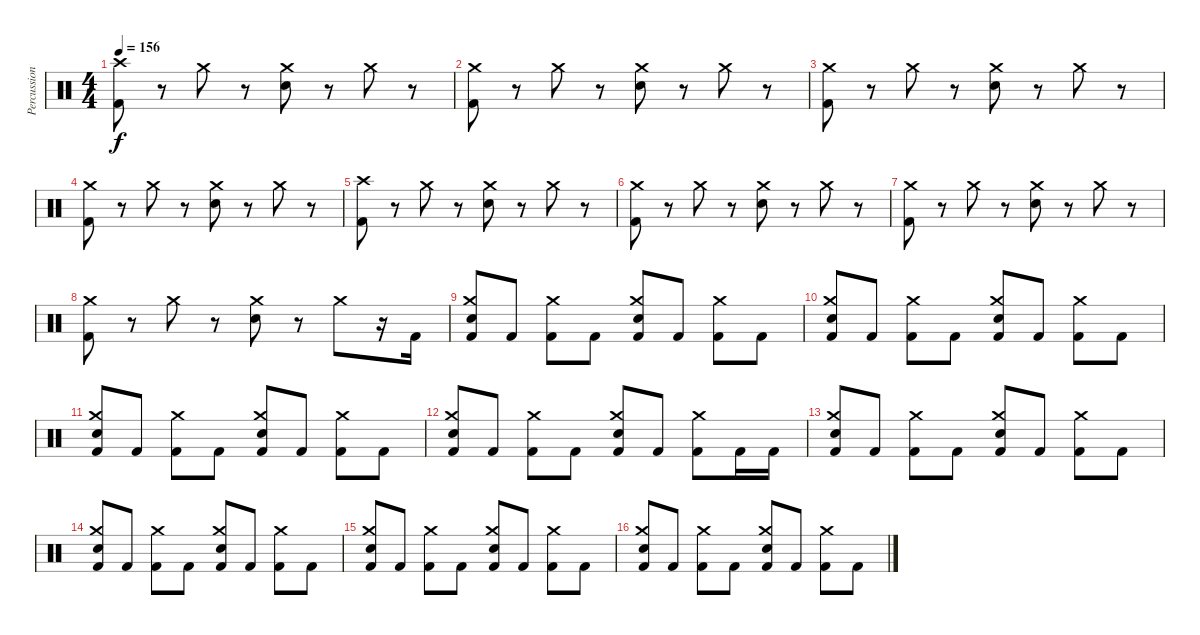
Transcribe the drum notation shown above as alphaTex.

\track ("Percussions" "Percussion") {instrument percussion}
\staff {score}
\articulation defaults
\ts (4 4)
\tempo 156
\clef neutral
\ks c
("Crash high (hit)" "Kick (hit) 2").8{dy f} r.8 "Crash medium (hit)".8 r.8 ("Crash medium (hit)" "Electric Snare (hit)").8 r.8 "Crash medium (hit)".8 r.8 |
("Crash medium (hit)" "Kick (hit) 2").8 r.8 "Crash medium (hit)".8 r.8 ("Crash medium (hit)" "Electric Snare (hit)").8 r.8 "Crash medium (hit)".8 r.8 |
("Crash medium (hit)" "Kick (hit) 2").8 r.8 "Crash medium (hit)".8 r.8 ("Crash medium (hit)" "Electric Snare (hit)").8 r.8 "Crash medium (hit)".8 r.8 |
("Crash medium (hit)" "Kick (hit) 2").8 r.8 "Crash medium (hit)".8 r.8 ("Crash medium (hit)" "Electric Snare (hit)").8 r.8 "Crash medium (hit)".8 r.8 |
("Crash high (hit)" "Kick (hit) 2").8 r.8 "Crash medium (hit)".8 r.8 ("Crash medium (hit)" "Electric Snare (hit)").8 r.8 "Crash medium (hit)".8 r.8 |
("Crash medium (hit)" "Kick (hit) 2").8 r.8 "Crash medium (hit)".8 r.8 ("Crash medium (hit)" "Electric Snare (hit)").8 r.8 "Crash medium (hit)".8 r.8 |
("Crash medium (hit)" "Kick (hit) 2").8 r.8 "Crash medium (hit)".8 r.8 ("Crash medium (hit)" "Electric Snare (hit)").8 r.8 "Crash medium (hit)".8 r.8 |
("Crash medium (hit)" "Kick (hit) 2").8 r.8 "Crash medium (hit)".8 r.8 ("Crash medium (hit)" "Electric Snare (hit)").8 r.8 "Crash medium (hit)".8 r.16 "Kick (hit) 2".16 |
("Crash medium (hit)" "Electric Snare (hit)" "Kick (hit) 2").8 "Kick (hit) 2".8 ("Crash medium (hit)" "Kick (hit) 2").8 "Kick (hit) 2".8 ("Crash medium (hit)" "Electric Snare (hit)" "Kick (hit) 2").8 "Kick (hit) 2".8 ("Crash medium (hit)" "Kick (hit) 2").8 "Kick (hit) 2".8 |
("Crash medium (hit)" "Electric Snare (hit)" "Kick (hit) 2").8 "Kick (hit) 2".8 ("Crash medium (hit)" "Kick (hit) 2").8 "Kick (hit) 2".8 ("Crash medium (hit)" "Electric Snare (hit)" "Kick (hit) 2").8 "Kick (hit) 2".8 ("Crash medium (hit)" "Kick (hit) 2").8 "Kick (hit) 2".8 |
("Crash medium (hit)" "Electric Snare (hit)" "Kick (hit) 2").8 "Kick (hit) 2".8 ("Crash medium (hit)" "Kick (hit) 2").8 "Kick (hit) 2".8 ("Crash medium (hit)" "Electric Snare (hit)" "Kick (hit) 2").8 "Kick (hit) 2".8 ("Crash medium (hit)" "Kick (hit) 2").8 "Kick (hit) 2".8 |
("Crash medium (hit)" "Electric Snare (hit)" "Kick (hit) 2").8 "Kick (hit) 2".8 ("Crash medium (hit)" "Kick (hit) 2").8 "Kick (hit) 2".8 ("Crash medium (hit)" "Electric Snare (hit)" "Kick (hit) 2").8 "Kick (hit) 2".8 ("Crash medium (hit)" "Kick (hit) 2").8 "Kick (hit) 2".16 "Kick (hit) 2".16 |
("Crash medium (hit)" "Electric Snare (hit)" "Kick (hit) 2").8 "Kick (hit) 2".8 ("Crash medium (hit)" "Kick (hit) 2").8 "Kick (hit) 2".8 ("Crash medium (hit)" "Electric Snare (hit)" "Kick (hit) 2").8 "Kick (hit) 2".8 ("Crash medium (hit)" "Kick (hit) 2").8 "Kick (hit) 2".8 |
("Crash medium (hit)" "Electric Snare (hit)" "Kick (hit) 2").8 "Kick (hit) 2".8 ("Crash medium (hit)" "Kick (hit) 2").8 "Kick (hit) 2".8 ("Crash medium (hit)" "Electric Snare (hit)" "Kick (hit) 2").8 "Kick (hit) 2".8 ("Crash medium (hit)" "Kick (hit) 2").8 "Kick (hit) 2".8 |
("Crash medium (hit)" "Electric Snare (hit)" "Kick (hit) 2").8 "Kick (hit) 2".8 ("Crash medium (hit)" "Kick (hit) 2").8 "Kick (hit) 2".8 ("Crash medium (hit)" "Electric Snare (hit)" "Kick (hit) 2").8 "Kick (hit) 2".8 ("Crash medium (hit)" "Kick (hit) 2").8 "Kick (hit) 2".8 |
("Crash medium (hit)" "Electric Snare (hit)" "Kick (hit) 2").8 "Kick (hit) 2".8 ("Crash medium (hit)" "Kick (hit) 2").8 "Kick (hit) 2".8 ("Crash medium (hit)" "Electric Snare (hit)" "Kick (hit) 2").8 "Kick (hit) 2".8 ("Crash medium (hit)" "Kick (hit) 2").8 "Kick (hit) 2".8
